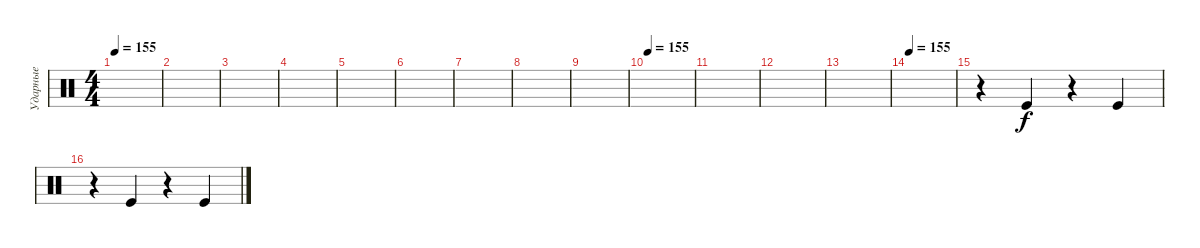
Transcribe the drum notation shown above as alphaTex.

\track ("Ударные" "Ударные") {instrument percussion}
\staff {score}
\articulation defaults
\ts (4 4)
\tempo 155
\tempo 120
\tempo 155
\clef neutral
\ks c
|
|
|
|
|
|
|
|
|
\tempo 155
|
|
|
|
\tempo 155
|
r.4 "Kick (hit)".4 r.4 "Kick (hit)".4 |
r.4 "Kick (hit)".4 r.4 "Kick (hit)".4
